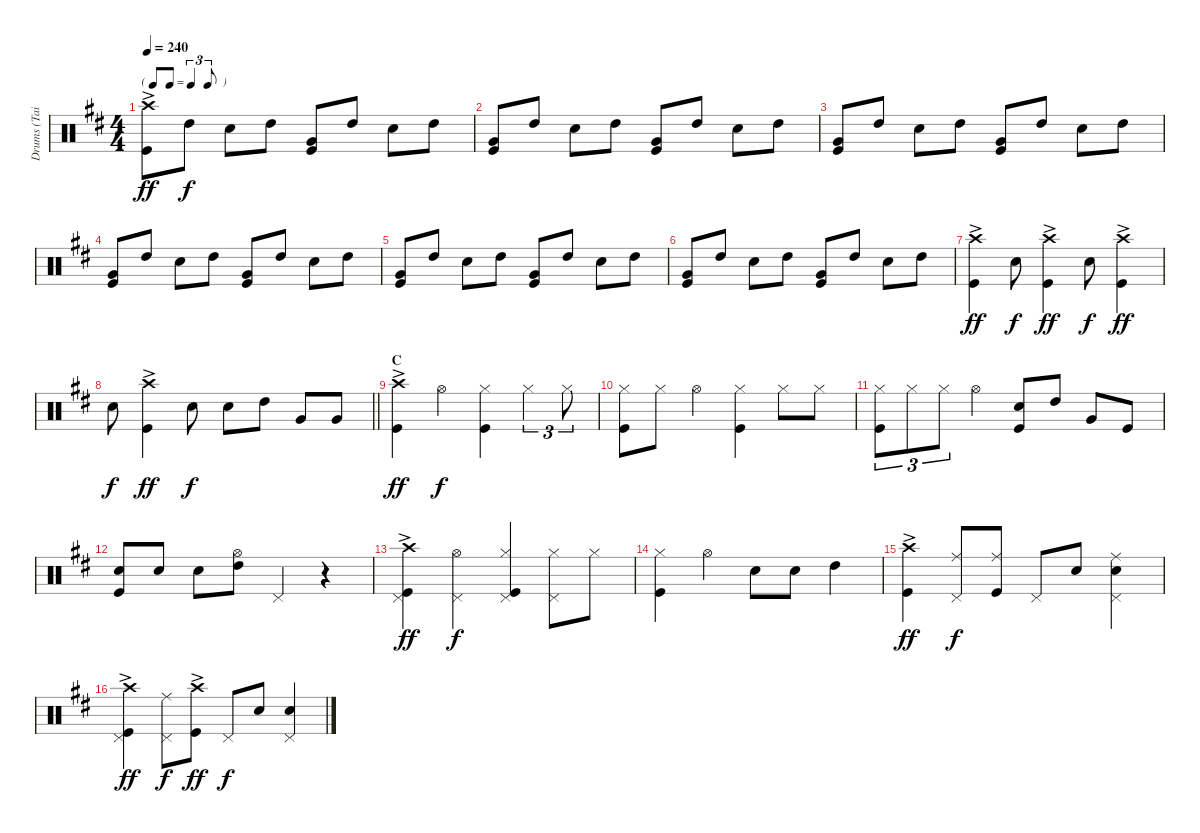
\track ("Drums (Tainaka Ritsu)" "Drums (Tai") {instrument percussion}
\staff {score}
\articulation defaults
\ts (4 4)
\tf triplet8th
\tempo 240
\clef neutral
\ks d
("Crash high (hit)"{ac} "Kick (hit)").8{dy ff} "High Tom (hit)".8{dy f} "Snare (hit) 2".8 "High Tom (hit)".8 ("Kick (hit)" "Very Low Tom (hit)").8 "High Tom (hit)".8 "Snare (hit) 2".8 "High Tom (hit)".8 |
("Kick (hit)" "Very Low Tom (hit)").8 "High Tom (hit)".8 "Snare (hit) 2".8 "High Tom (hit)".8 ("Kick (hit)" "Very Low Tom (hit)").8 "High Tom (hit)".8 "Snare (hit) 2".8 "High Tom (hit)".8 |
("Kick (hit)" "Very Low Tom (hit)").8 "High Tom (hit)".8 "Snare (hit) 2".8 "High Tom (hit)".8 ("Kick (hit)" "Very Low Tom (hit)").8 "High Tom (hit)".8 "Snare (hit) 2".8 "High Tom (hit)".8 |
("Kick (hit)" "Very Low Tom (hit)").8 "High Tom (hit)".8 "Snare (hit) 2".8 "High Tom (hit)".8 ("Kick (hit)" "Very Low Tom (hit)").8 "High Tom (hit)".8 "Snare (hit) 2".8 "High Tom (hit)".8 |
("Kick (hit)" "Very Low Tom (hit)").8 "High Tom (hit)".8 "Snare (hit) 2".8 "High Tom (hit)".8 ("Kick (hit)" "Very Low Tom (hit)").8 "High Tom (hit)".8 "Snare (hit) 2".8 "High Tom (hit)".8 |
("Kick (hit)" "Very Low Tom (hit)").8 "High Tom (hit)".8 "Snare (hit) 2".8 "High Tom (hit)".8 ("Kick (hit)" "Very Low Tom (hit)").8 "High Tom (hit)".8 "Snare (hit) 2".8 "High Tom (hit)".8 |
("Kick (hit)" "Crash high (hit)"{ac}).4{dy ff} "Snare (hit) 2".8{dy f} ("Crash high (hit)"{ac} "Kick (hit)").4{dy ff} "Snare (hit) 2".8{dy f} ("Kick (hit)" "Crash high (hit)"{ac}).4{dy ff} |
\barLineRight lightlight "Snare (hit) 2".8{dy f}
("Kick (hit)" "Crash high (hit)"{ac}).4{dy ff} "Snare (hit) 2".8{dy f} "Snare (hit) 2".8 "High Tom (hit)".8 "Very Low Tom (hit)".8 "Very Low Tom (hit)".8 |
\section ("" "C")
("Crash high (hit)"{ac} "Kick (hit)").4{dy ff} "Hi-Hat (open)".4{dy f} ("Hi-Hat (closed)" "Kick (hit)").4 "Hi-Hat (closed)".4{tu (3 2)} "Hi-Hat (closed)".8{tu (3 2)} |
("Hi-Hat (closed)" "Kick (hit)").8 "Hi-Hat (closed)".8 "Hi-Hat (open)".4 ("Hi-Hat (closed)" "Kick (hit)").4 "Hi-Hat (closed)".8 "Hi-Hat (closed)".8 |
("Kick (hit)" "Hi-Hat (closed)").8{tu (3 2)} "Hi-Hat (closed)".8{tu (3 2)} "Hi-Hat (closed)".8{tu (3 2)} "Hi-Hat (open)".4 ("Kick (hit)" "Snare (hit) 2").8 "High Tom (hit)".8 "Very Low Tom (hit)".8 "Kick (hit)".8 |
("Kick (hit)" "Snare (hit) 2").8 "Snare (hit) 2".8 "Snare (hit) 2".8 ("High Tom (hit)" "Hi-Hat (open)").8 "Pedal Hi-Hat (hit)".4 r.4 |
("Crash high (hit)"{ac} "Kick (hit)" "Pedal Hi-Hat (hit)").4{dy ff} ("Hi-Hat (open)" "Pedal Hi-Hat (hit)").4{dy f} ("Pedal Hi-Hat (hit)" "Kick (hit)" "Hi-Hat (closed)").4 ("Pedal Hi-Hat (hit)" "Hi-Hat (closed)").8 "Hi-Hat (closed)".8 |
("Hi-Hat (closed)" "Kick (hit)").4 "Hi-Hat (open)".4 "Snare (hit) 2".8 "Snare (hit) 2".8 "High Tom (hit)".4 |
("Crash high (hit)"{ac} "Kick (hit)").4{dy ff} ("Pedal Hi-Hat (hit)" "Ride (middle)").8{dy f} ("Ride (middle)" "Kick (hit)").8 "Pedal Hi-Hat (hit)".8 "Snare (hit) 2".8 ("Snare (hit) 2" "Ride (middle)" "Pedal Hi-Hat (hit)").4 |
("Crash high (hit)"{ac} "Kick (hit)" "Pedal Hi-Hat (hit)").4{dy ff} ("Ride (middle)" "Pedal Hi-Hat (hit)").8{dy f} ("Crash high (hit)"{ac} "Kick (hit)").8{dy ff} "Pedal Hi-Hat (hit)".8{dy f} "Snare (hit) 2".8 ("Snare (hit) 2" "Pedal Hi-Hat (hit)").4
